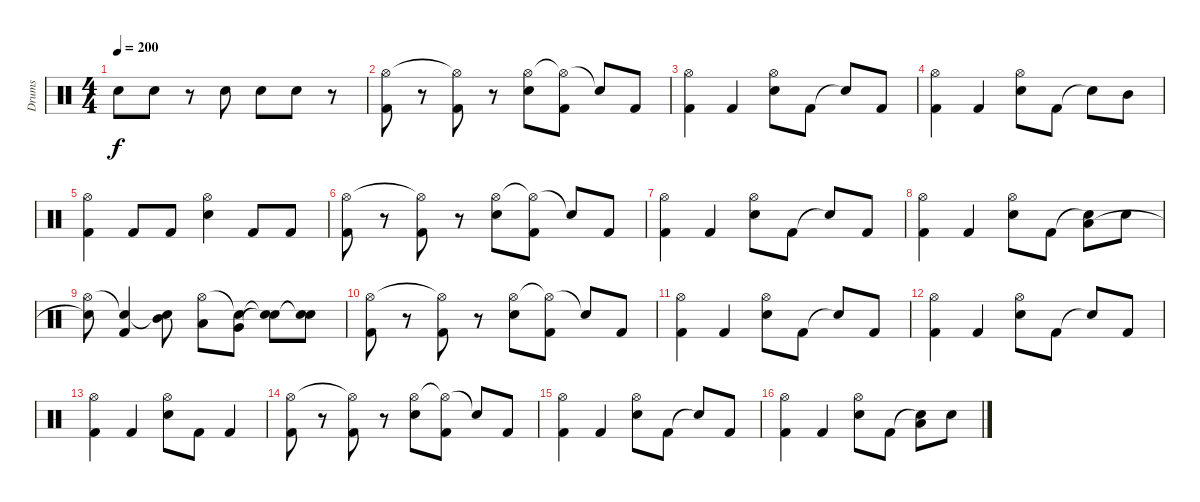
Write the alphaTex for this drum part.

\track ("Drums" "Drums") {instrument percussion}
\staff {score}
\articulation defaults
\ts (4 4)
\tempo 200
\clef neutral
\ks c "Electric Snare (hit)".8{dy f} "Electric Snare (hit)".8
r.8 "Electric Snare (hit)".8 "Electric Snare (hit)".8 "Electric Snare (hit)".8 r.8 |
("Hi-Hat (open)" "Kick (hit) 2").8 r.8 ("Hi-Hat (open)"{t} "Kick (hit) 2").8 r.8 ("Hi-Hat (open)" "Electric Snare (hit)").8 ("Hi-Hat (open)"{t} "Kick (hit) 2").8 "Snare (hit)"{t}.8 "Kick (hit) 2".8 |
("Hi-Hat (open)" "Kick (hit) 2").4 "Kick (hit) 2".4 ("Hi-Hat (open)" "Electric Snare (hit)").8 "Kick (hit) 2".8 "Snare (hit)"{t}.8 "Kick (hit) 2".8 |
("Hi-Hat (open)" "Kick (hit) 2").4 "Kick (hit) 2".4 ("Hi-Hat (open)" "Electric Snare (hit)").8 "Kick (hit) 2".8 "Snare (hit)"{t}.8 "Mid Tom (hit)".8 |
("Hi-Hat (open)" "Kick (hit) 2").4 "Kick (hit) 2".8 "Kick (hit) 2".8 ("Hi-Hat (open)" "Electric Snare (hit)").4 "Kick (hit) 2".8 "Kick (hit) 2".8 |
("Hi-Hat (open)" "Kick (hit) 2").8 r.8 ("Hi-Hat (open)"{t} "Kick (hit) 2").8 r.8 ("Hi-Hat (open)" "Electric Snare (hit)").8 ("Hi-Hat (open)"{t} "Kick (hit) 2").8 "Snare (hit)"{t}.8 "Kick (hit) 2".8 |
("Hi-Hat (open)" "Kick (hit) 2").4 "Kick (hit) 2".4 ("Hi-Hat (open)" "Electric Snare (hit)").8 "Kick (hit) 2".8 "Snare (hit)"{t}.8 "Kick (hit) 2".8 |
("Hi-Hat (open)" "Kick (hit) 2").4 "Kick (hit) 2".4 ("Hi-Hat (open)" "Electric Snare (hit)").8 "Kick (hit) 2".8 ("Snare (hit)"{t} "Low Tom (hit)").8 "Electric Snare (hit)".8 |
("Hi-Hat (open)" "Snare (hit)"{t}).8 ("Snare (hit)"{t} "Kick (hit) 2").4 ("Snare (hit)"{t} "Mid Tom (hit)").8 ("Hi-Hat (open)" "Low Tom (hit)").8 ("Snare (hit)"{t} "Very Low Tom (hit)").8 ("Snare (hit)"{t} "Snare (hit)"{t}).8 ("Snare (hit)"{t} "Snare (hit)"{t}).8 |
("Hi-Hat (open)" "Kick (hit) 2").8 r.8 ("Hi-Hat (open)"{t} "Kick (hit) 2").8 r.8 ("Hi-Hat (open)" "Electric Snare (hit)").8 ("Hi-Hat (open)"{t} "Kick (hit) 2").8 "Snare (hit)"{t}.8 "Kick (hit) 2".8 |
("Hi-Hat (open)" "Kick (hit) 2").4 "Kick (hit) 2".4 ("Hi-Hat (open)" "Electric Snare (hit)").8 "Kick (hit) 2".8 "Snare (hit)"{t}.8 "Kick (hit) 2".8 |
("Hi-Hat (open)" "Kick (hit) 2").4 "Kick (hit) 2".4 ("Hi-Hat (open)" "Electric Snare (hit)").8 "Kick (hit) 2".8 "Snare (hit)"{t}.8 "Kick (hit) 2".8 |
("Hi-Hat (open)" "Kick (hit) 2").4 "Kick (hit) 2".4 ("Hi-Hat (open)" "Electric Snare (hit)").8 "Kick (hit) 2".8 "Kick (hit) 2".4 |
("Hi-Hat (open)" "Kick (hit) 2").8 r.8 ("Hi-Hat (open)"{t} "Kick (hit) 2").8 r.8 ("Hi-Hat (open)" "Electric Snare (hit)").8 ("Hi-Hat (open)"{t} "Kick (hit) 2").8 "Snare (hit)"{t}.8 "Kick (hit) 2".8 |
("Hi-Hat (open)" "Kick (hit) 2").4 "Kick (hit) 2".4 ("Hi-Hat (open)" "Electric Snare (hit)").8 "Kick (hit) 2".8 "Snare (hit)"{t}.8 "Kick (hit) 2".8 |
("Hi-Hat (open)" "Kick (hit) 2").4 "Kick (hit) 2".4 ("Hi-Hat (open)" "Electric Snare (hit)").8 "Kick (hit) 2".8 ("Snare (hit)"{t} "Low Tom (hit)").8 "Electric Snare (hit)".8
